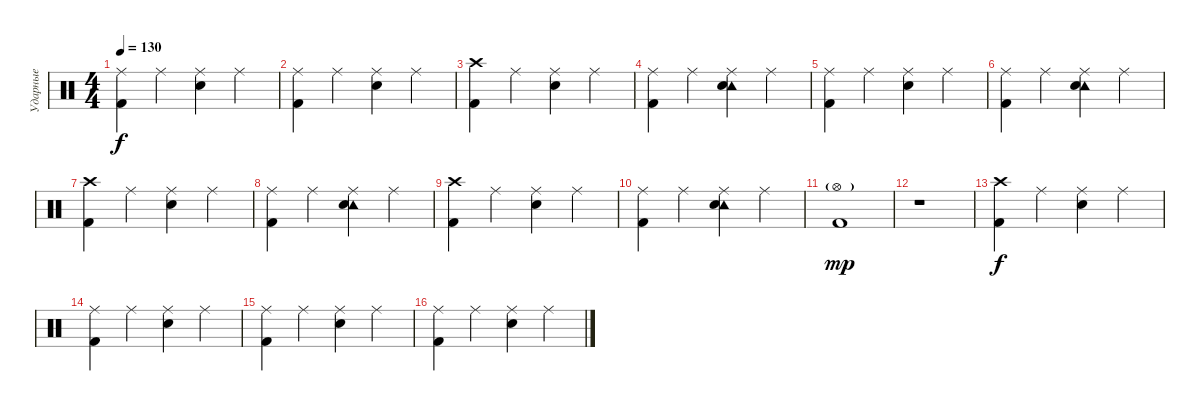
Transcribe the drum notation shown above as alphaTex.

\track ("Ударные" "Ударные") {instrument percussion}
\staff {score}
\articulation defaults
\ts (4 4)
\tempo 130
\clef neutral
\ks c
("Ride (middle)" "Kick (hit) 2").4{dy f} "Ride (middle)".4 ("Ride (middle)" "Electric Snare (hit)").4 "Ride (middle)".4 |
("Ride (middle)" "Kick (hit) 2").4 "Ride (middle)".4 ("Ride (middle)" "Electric Snare (hit)").4 "Ride (middle)".4 |
("Crash high (hit)" "Kick (hit) 2").4 "Ride (middle)".4 ("Ride (middle)" "Electric Snare (hit)").4 "Ride (middle)".4 |
("Ride (middle)" "Kick (hit) 2").4 "Ride (middle)".4 ("Tambourine (hit)" "Ride (middle)" "Electric Snare (hit)").4 "Ride (middle)".4 |
("Ride (middle)" "Kick (hit) 2").4 "Ride (middle)".4 ("Ride (middle)" "Electric Snare (hit)").4 "Ride (middle)".4 |
("Ride (middle)" "Kick (hit) 2").4 "Ride (middle)".4 ("Tambourine (hit)" "Ride (middle)" "Electric Snare (hit)").4 "Ride (middle)".4 |
("Crash high (hit)" "Kick (hit) 2").4 "Ride (middle)".4 ("Ride (middle)" "Electric Snare (hit)").4 "Ride (middle)".4 |
("Ride (middle)" "Kick (hit) 2").4 "Ride (middle)".4 ("Tambourine (hit)" "Ride (middle)" "Electric Snare (hit)").4 "Ride (middle)".4 |
("Crash high (hit)" "Kick (hit) 2").4 "Ride (middle)".4 ("Ride (middle)" "Electric Snare (hit)").4 "Ride (middle)".4 |
("Ride (middle)" "Kick (hit) 2").4 "Ride (middle)".4 ("Tambourine (hit)" "Ride (middle)" "Electric Snare (hit)").4 "Ride (middle)".4 |
("Hi-Hat (open)"{g} "Kick (hit) 2").1{dy mp} |
r.1 |
("Crash high (hit)" "Kick (hit) 2").4{dy f} "Ride (middle)".4 ("Ride (middle)" "Electric Snare (hit)").4 "Ride (middle)".4 |
("Ride (middle)" "Kick (hit) 2").4 "Ride (middle)".4 ("Ride (middle)" "Electric Snare (hit)").4 "Ride (middle)".4 |
("Ride (middle)" "Kick (hit) 2").4 "Ride (middle)".4 ("Ride (middle)" "Electric Snare (hit)").4 "Ride (middle)".4 |
("Ride (middle)" "Kick (hit) 2").4 "Ride (middle)".4 ("Ride (middle)" "Electric Snare (hit)").4 "Ride (middle)".4
